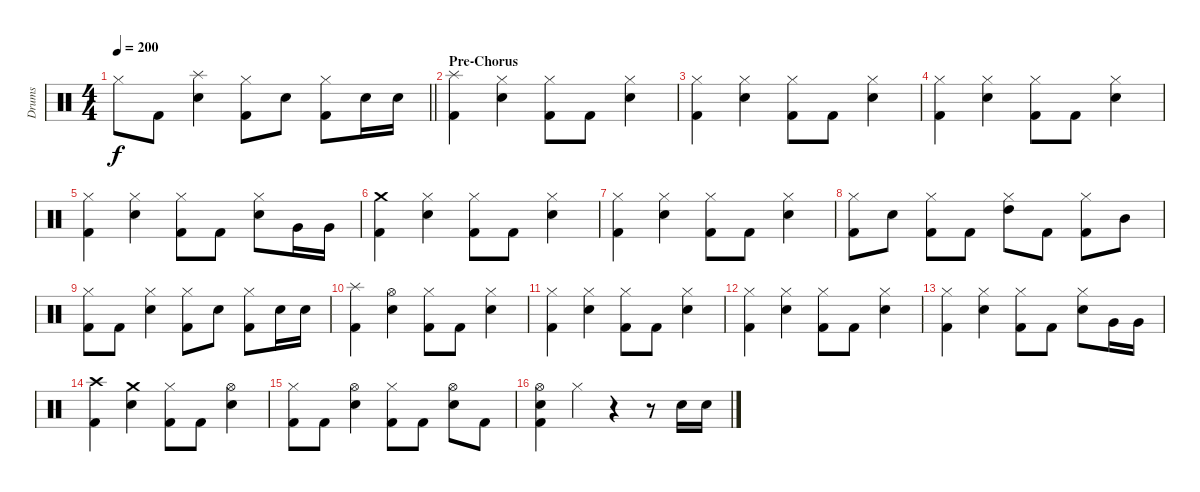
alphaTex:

\track ("Drums" "Drums") {instrument percussion}
\staff {score}
\articulation defaults
\ts (4 4)
\tempo 200
\clef neutral
\barLineRight lightlight
\ks c "Hi-Hat (closed)".8{dy f} "Kick (hit) 2".8
("Splash (hit)" "Snare (hit) 2").4 ("Hi-Hat (closed)" "Kick (hit) 2").8 "Snare (hit) 2".8 ("Hi-Hat (closed)" "Kick (hit) 2").8 "Snare (hit) 2".16 "Snare (hit) 2".16 |
\section ("" "Pre-Chorus")
("Splash (hit)" "Kick (hit) 2").4 ("Hi-Hat (closed)" "Snare (hit) 2").4 ("Hi-Hat (closed)" "Kick (hit) 2").8 "Kick (hit) 2".8 ("Hi-Hat (closed)" "Snare (hit) 2").4 |
("Hi-Hat (closed)" "Kick (hit) 2").4 ("Hi-Hat (closed)" "Snare (hit) 2").4 ("Hi-Hat (closed)" "Kick (hit) 2").8 "Kick (hit) 2".8 ("Hi-Hat (closed)" "Snare (hit) 2").4 |
("Hi-Hat (closed)" "Kick (hit) 2").4 ("Hi-Hat (closed)" "Snare (hit) 2").4 ("Hi-Hat (closed)" "Kick (hit) 2").8 "Kick (hit) 2".8 ("Hi-Hat (closed)" "Snare (hit) 2").4 |
("Hi-Hat (closed)" "Kick (hit) 2").4 ("Hi-Hat (closed)" "Snare (hit) 2").4 ("Hi-Hat (closed)" "Kick (hit) 2").8 "Kick (hit) 2".8 ("Hi-Hat (closed)" "Snare (hit) 2").8 "Very Low Tom (hit)".16 "Very Low Tom (hit)".16 |
("Crash medium (hit)" "Kick (hit) 2").4 ("Hi-Hat (closed)" "Snare (hit) 2").4 ("Hi-Hat (closed)" "Kick (hit) 2").8 "Kick (hit) 2".8 ("Hi-Hat (closed)" "Snare (hit) 2").4 |
("Hi-Hat (closed)" "Kick (hit) 2").4 ("Hi-Hat (closed)" "Snare (hit) 2").4 ("Hi-Hat (closed)" "Kick (hit) 2").8 "Kick (hit) 2".8 ("Hi-Hat (closed)" "Snare (hit) 2").4 |
("Hi-Hat (closed)" "Kick (hit) 2").8 "Snare (hit) 2".8 ("Hi-Hat (closed)" "Kick (hit) 2").8 "Kick (hit) 2".8 ("Hi-Hat (closed)" "High Tom (hit)").8 "Kick (hit) 2".8 ("Hi-Hat (closed)" "Kick (hit) 2").8 "Mid Tom (hit)".8 |
("Hi-Hat (closed)" "Kick (hit) 2").8 "Kick (hit) 2".8 ("Hi-Hat (closed)" "Snare (hit) 2").4 ("Hi-Hat (closed)" "Kick (hit) 2").8 "Snare (hit) 2".8 ("Hi-Hat (closed)" "Kick (hit) 2").8 "Snare (hit) 2".16 "Snare (hit) 2".16 |
("Splash (hit)" "Kick (hit) 2").4 ("Hi-Hat (open)" "Snare (hit) 2").4 ("Hi-Hat (closed)" "Kick (hit) 2").8 "Kick (hit) 2".8 ("Hi-Hat (closed)" "Snare (hit) 2").4 |
("Hi-Hat (closed)" "Kick (hit) 2").4 ("Hi-Hat (closed)" "Snare (hit) 2").4 ("Hi-Hat (closed)" "Kick (hit) 2").8 "Kick (hit) 2".8 ("Hi-Hat (closed)" "Snare (hit) 2").4 |
("Hi-Hat (closed)" "Kick (hit) 2").4 ("Hi-Hat (closed)" "Snare (hit) 2").4 ("Hi-Hat (closed)" "Kick (hit) 2").8 "Kick (hit) 2".8 ("Hi-Hat (closed)" "Snare (hit) 2").4 |
("Hi-Hat (closed)" "Kick (hit) 2").4 ("Hi-Hat (closed)" "Snare (hit) 2").4 ("Hi-Hat (closed)" "Kick (hit) 2").8 "Kick (hit) 2".8 ("Hi-Hat (closed)" "Snare (hit) 2").8 "Very Low Tom (hit)".16 "Very Low Tom (hit)".16 |
("Crash high (hit)" "Kick (hit) 2").4 ("Crash medium (hit)" "Snare (hit) 2").4 ("Hi-Hat (closed)" "Kick (hit) 2").8 "Kick (hit) 2".8 ("Hi-Hat (open)" "Snare (hit) 2").4 |
("Hi-Hat (closed)" "Kick (hit) 2").8 "Kick (hit) 2".8 ("Hi-Hat (open)" "Snare (hit) 2").4 ("Hi-Hat (closed)" "Kick (hit) 2").8 "Kick (hit) 2".8 ("Hi-Hat (open)" "Snare (hit) 2").8 "Kick (hit) 2".8 |
("Hi-Hat (open)" "Snare (hit) 2" "Kick (hit) 2").4 "Hi-Hat (closed)".4 r.4 r.8 "Snare (hit) 2".16 "Snare (hit) 2".16
